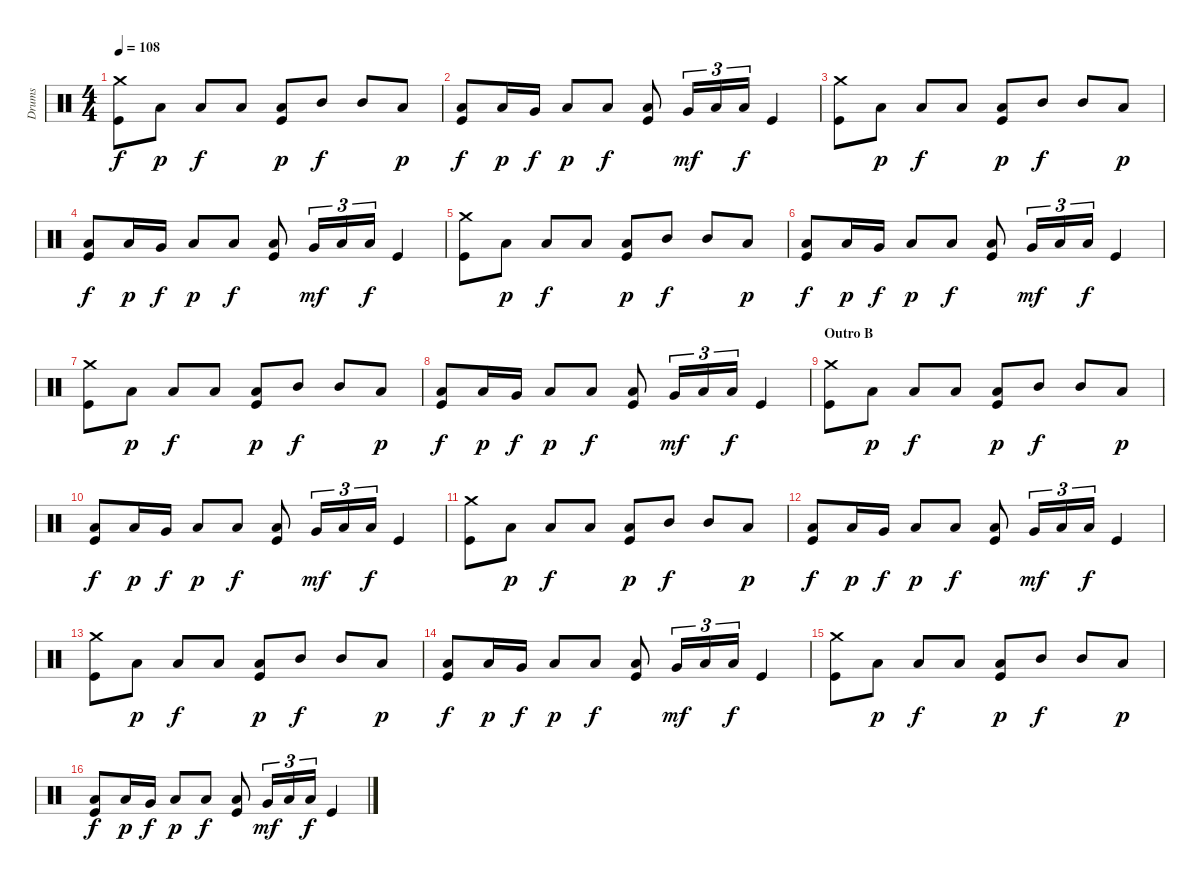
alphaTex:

\track ("Drums" "Drums") {instrument percussion}
\staff {score}
\articulation defaults
\ts (4 4)
\tempo 108
\clef neutral
\ks c
("Crash medium (hit)" "Kick (hit)").8{dy f} "Low Floor Tom (hit)".8{dy p} "Low Tom (hit)".8{dy f} "Low Tom (hit)".8 ("Low Floor Tom (hit)" "Kick (hit)").8{dy p} "Mid Tom (hit)".8{dy f} "Mid Tom (hit)".8 "Low Floor Tom (hit)".8{dy p} |
("Low Tom (hit)" "Kick (hit)").8{dy f} "Low Floor Tom (hit)".16{dy p} "Very Low Tom (hit)".16{dy f} "Low Floor Tom (hit)".8{dy p} "Low Tom (hit)".8{dy f} ("Low Floor Tom (hit)" "Kick (hit)").8 "Very Low Tom (hit)".16{tu (3 2) dy mf} "Low Tom (hit)".16{tu (3 2)} "Low Floor Tom (hit)".16{tu (3 2) dy f} "Kick (hit)".4 |
("Crash medium (hit)" "Kick (hit)").8 "Low Floor Tom (hit)".8{dy p} "Low Tom (hit)".8{dy f} "Low Tom (hit)".8 ("Low Floor Tom (hit)" "Kick (hit)").8{dy p} "Mid Tom (hit)".8{dy f} "Mid Tom (hit)".8 "Low Floor Tom (hit)".8{dy p} |
("Low Tom (hit)" "Kick (hit)").8{dy f} "Low Floor Tom (hit)".16{dy p} "Very Low Tom (hit)".16{dy f} "Low Floor Tom (hit)".8{dy p} "Low Tom (hit)".8{dy f} ("Low Floor Tom (hit)" "Kick (hit)").8 "Very Low Tom (hit)".16{tu (3 2) dy mf} "Low Tom (hit)".16{tu (3 2)} "Low Floor Tom (hit)".16{tu (3 2) dy f} "Kick (hit)".4 |
("Crash medium (hit)" "Kick (hit)").8 "Low Floor Tom (hit)".8{dy p} "Low Tom (hit)".8{dy f} "Low Tom (hit)".8 ("Low Floor Tom (hit)" "Kick (hit)").8{dy p} "Mid Tom (hit)".8{dy f} "Mid Tom (hit)".8 "Low Floor Tom (hit)".8{dy p} |
("Low Tom (hit)" "Kick (hit)").8{dy f} "Low Floor Tom (hit)".16{dy p} "Very Low Tom (hit)".16{dy f} "Low Floor Tom (hit)".8{dy p} "Low Tom (hit)".8{dy f} ("Low Floor Tom (hit)" "Kick (hit)").8 "Very Low Tom (hit)".16{tu (3 2) dy mf} "Low Tom (hit)".16{tu (3 2)} "Low Floor Tom (hit)".16{tu (3 2) dy f} "Kick (hit)".4 |
("Crash medium (hit)" "Kick (hit)").8 "Low Floor Tom (hit)".8{dy p} "Low Tom (hit)".8{dy f} "Low Tom (hit)".8 ("Low Floor Tom (hit)" "Kick (hit)").8{dy p} "Mid Tom (hit)".8{dy f} "Mid Tom (hit)".8 "Low Floor Tom (hit)".8{dy p} |
("Low Tom (hit)" "Kick (hit)").8{dy f} "Low Floor Tom (hit)".16{dy p} "Very Low Tom (hit)".16{dy f} "Low Floor Tom (hit)".8{dy p} "Low Tom (hit)".8{dy f} ("Low Floor Tom (hit)" "Kick (hit)").8 "Very Low Tom (hit)".16{tu (3 2) dy mf} "Low Tom (hit)".16{tu (3 2)} "Low Floor Tom (hit)".16{tu (3 2) dy f} "Kick (hit)".4 |
\section ("" "Outro B")
("Crash medium (hit)" "Kick (hit)").8 "Low Floor Tom (hit)".8{dy p} "Low Tom (hit)".8{dy f} "Low Tom (hit)".8 ("Low Floor Tom (hit)" "Kick (hit)").8{dy p} "Mid Tom (hit)".8{dy f} "Mid Tom (hit)".8 "Low Floor Tom (hit)".8{dy p} |
("Low Tom (hit)" "Kick (hit)").8{dy f} "Low Floor Tom (hit)".16{dy p} "Very Low Tom (hit)".16{dy f} "Low Floor Tom (hit)".8{dy p} "Low Tom (hit)".8{dy f} ("Low Floor Tom (hit)" "Kick (hit)").8 "Very Low Tom (hit)".16{tu (3 2) dy mf} "Low Tom (hit)".16{tu (3 2)} "Low Floor Tom (hit)".16{tu (3 2) dy f} "Kick (hit)".4 |
("Crash medium (hit)" "Kick (hit)").8 "Low Floor Tom (hit)".8{dy p} "Low Tom (hit)".8{dy f} "Low Tom (hit)".8 ("Low Floor Tom (hit)" "Kick (hit)").8{dy p} "Mid Tom (hit)".8{dy f} "Mid Tom (hit)".8 "Low Floor Tom (hit)".8{dy p} |
("Low Tom (hit)" "Kick (hit)").8{dy f} "Low Floor Tom (hit)".16{dy p} "Very Low Tom (hit)".16{dy f} "Low Floor Tom (hit)".8{dy p} "Low Tom (hit)".8{dy f} ("Low Floor Tom (hit)" "Kick (hit)").8 "Very Low Tom (hit)".16{tu (3 2) dy mf} "Low Tom (hit)".16{tu (3 2)} "Low Floor Tom (hit)".16{tu (3 2) dy f} "Kick (hit)".4 |
("Crash medium (hit)" "Kick (hit)").8 "Low Floor Tom (hit)".8{dy p} "Low Tom (hit)".8{dy f} "Low Tom (hit)".8 ("Low Floor Tom (hit)" "Kick (hit)").8{dy p} "Mid Tom (hit)".8{dy f} "Mid Tom (hit)".8 "Low Floor Tom (hit)".8{dy p} |
("Low Tom (hit)" "Kick (hit)").8{dy f} "Low Floor Tom (hit)".16{dy p} "Very Low Tom (hit)".16{dy f} "Low Floor Tom (hit)".8{dy p} "Low Tom (hit)".8{dy f} ("Low Floor Tom (hit)" "Kick (hit)").8 "Very Low Tom (hit)".16{tu (3 2) dy mf} "Low Tom (hit)".16{tu (3 2)} "Low Floor Tom (hit)".16{tu (3 2) dy f} "Kick (hit)".4 |
("Crash medium (hit)" "Kick (hit)").8 "Low Floor Tom (hit)".8{dy p} "Low Tom (hit)".8{dy f} "Low Tom (hit)".8 ("Low Floor Tom (hit)" "Kick (hit)").8{dy p} "Mid Tom (hit)".8{dy f} "Mid Tom (hit)".8 "Low Floor Tom (hit)".8{dy p} |
("Low Tom (hit)" "Kick (hit)").8{dy f} "Low Floor Tom (hit)".16{dy p} "Very Low Tom (hit)".16{dy f} "Low Floor Tom (hit)".8{dy p} "Low Tom (hit)".8{dy f} ("Low Floor Tom (hit)" "Kick (hit)").8 "Very Low Tom (hit)".16{tu (3 2) dy mf} "Low Tom (hit)".16{tu (3 2)} "Low Floor Tom (hit)".16{tu (3 2) dy f} "Kick (hit)".4
